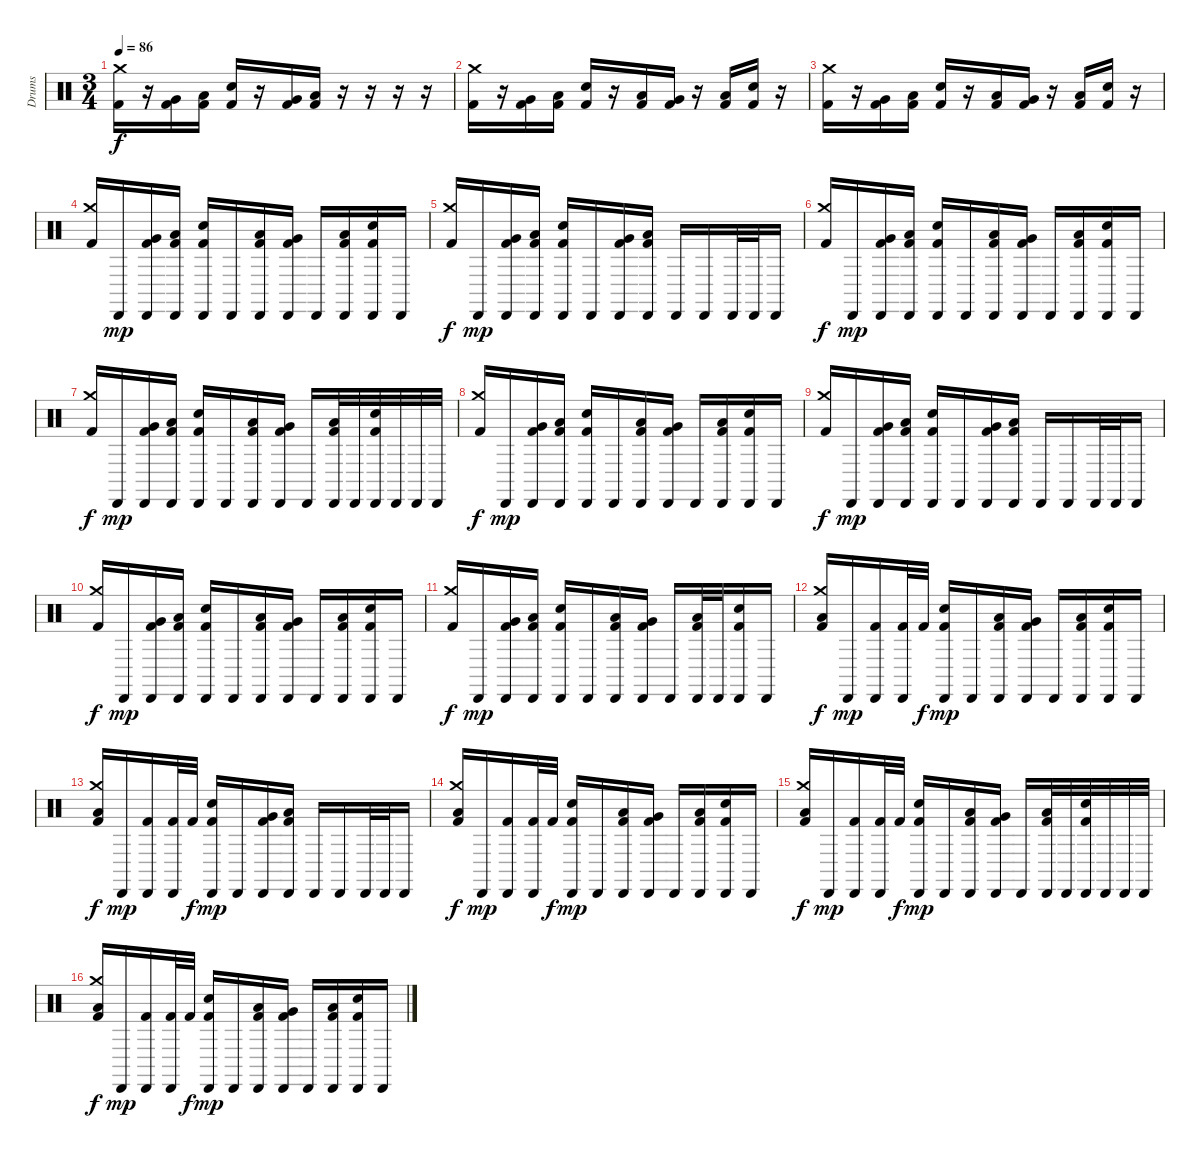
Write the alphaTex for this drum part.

\track ("Drums" "Drums") {instrument percussion}
\staff {score}
\articulation defaults
\ts (3 4)
\tempo 86
\clef neutral
\ks c
("Crash medium (hit)" "Kick (hit) 2").16{dy f} r.16 ("Very Low Tom (hit)" "Kick (hit) 2").16 ("Low Floor Tom (hit)" "Kick (hit) 2").16 ("Electric Snare (hit)" "Kick (hit) 2").16 r.16 ("Very Low Tom (hit)" "Kick (hit) 2").16 ("Low Floor Tom (hit)" "Kick (hit) 2").16 r.16 r.16 r.16 r.16 |
("Crash medium (hit)" "Kick (hit) 2").16 r.16 ("Very Low Tom (hit)" "Kick (hit) 2").16 ("Low Floor Tom (hit)" "Kick (hit) 2").16 ("Electric Snare (hit)" "Kick (hit) 2").16 r.16 ("Low Tom (hit)" "Kick (hit) 2").16 ("Very Low Tom (hit)" "Kick (hit) 2").16 r.16 ("Low Floor Tom (hit)" "Kick (hit) 2").16 ("Electric Snare (hit)" "Kick (hit) 2").16 r.16 |
("Crash medium (hit)" "Kick (hit) 2").16 r.16 ("Very Low Tom (hit)" "Kick (hit) 2").16 ("Low Floor Tom (hit)" "Kick (hit) 2").16 ("Electric Snare (hit)" "Kick (hit) 2").16 r.16 ("Low Tom (hit)" "Kick (hit) 2").16 ("Very Low Tom (hit)" "Kick (hit) 2").16 r.16 ("Low Floor Tom (hit)" "Kick (hit) 2").16 ("Electric Snare (hit)" "Kick (hit) 2").16 r.16 |
("Crash medium (hit)" "Kick (hit) 2").16 "Cabasa (hit)".16{dy mp} ("Cabasa (hit)" "Very Low Tom (hit)" "Kick (hit) 2").16 ("Cabasa (hit)" "Low Floor Tom (hit)" "Kick (hit) 2").16 ("Cabasa (hit)" "Electric Snare (hit)" "Kick (hit) 2").16 "Cabasa (hit)".16 ("Cabasa (hit)" "Low Tom (hit)" "Kick (hit) 2").16 ("Cabasa (hit)" "Very Low Tom (hit)" "Kick (hit) 2").16 "Cabasa (hit)".16 ("Cabasa (hit)" "Low Floor Tom (hit)" "Kick (hit) 2").16 ("Cabasa (hit)" "Electric Snare (hit)" "Kick (hit) 2").16 "Cabasa (hit)".16 |
("Crash medium (hit)" "Kick (hit) 2").16{dy f} "Cabasa (hit)".16{dy mp} ("Cabasa (hit)" "Very Low Tom (hit)" "Kick (hit) 2").16 ("Cabasa (hit)" "Low Floor Tom (hit)" "Kick (hit) 2").16 ("Cabasa (hit)" "Electric Snare (hit)" "Kick (hit) 2").16 "Cabasa (hit)".16 ("Cabasa (hit)" "Very Low Tom (hit)" "Kick (hit) 2").16 ("Cabasa (hit)" "Low Floor Tom (hit)" "Kick (hit) 2").16 "Cabasa (hit)".16 "Cabasa (hit)".16 "Cabasa (hit)".32 "Cabasa (hit)".32 "Cabasa (hit)".16 |
("Crash medium (hit)" "Kick (hit) 2").16{dy f} "Cabasa (hit)".16{dy mp} ("Cabasa (hit)" "Very Low Tom (hit)" "Kick (hit) 2").16 ("Cabasa (hit)" "Low Floor Tom (hit)" "Kick (hit) 2").16 ("Cabasa (hit)" "Electric Snare (hit)" "Kick (hit) 2").16 "Cabasa (hit)".16 ("Cabasa (hit)" "Low Tom (hit)" "Kick (hit) 2").16 ("Cabasa (hit)" "Very Low Tom (hit)" "Kick (hit) 2").16 "Cabasa (hit)".16 ("Cabasa (hit)" "Low Floor Tom (hit)" "Kick (hit) 2").16 ("Cabasa (hit)" "Electric Snare (hit)" "Kick (hit) 2").16 "Cabasa (hit)".16 |
("Crash medium (hit)" "Kick (hit) 2").16{dy f} "Cabasa (hit)".16{dy mp} ("Cabasa (hit)" "Very Low Tom (hit)" "Kick (hit) 2").16 ("Cabasa (hit)" "Low Floor Tom (hit)" "Kick (hit) 2").16 ("Cabasa (hit)" "Electric Snare (hit)" "Kick (hit) 2").16 "Cabasa (hit)".16 ("Cabasa (hit)" "Low Tom (hit)" "Kick (hit) 2").16 ("Cabasa (hit)" "Very Low Tom (hit)" "Kick (hit) 2").16 "Cabasa (hit)".16 ("Cabasa (hit)" "Low Floor Tom (hit)" "Kick (hit) 2").32 "Cabasa (hit)".32 ("Cabasa (hit)" "Electric Snare (hit)" "Kick (hit) 2").32 "Cabasa (hit)".32 "Cabasa (hit)".32 "Cabasa (hit)".32 |
("Crash medium (hit)" "Kick (hit) 2").16{dy f} "Cabasa (hit)".16{dy mp} ("Cabasa (hit)" "Very Low Tom (hit)" "Kick (hit) 2").16 ("Cabasa (hit)" "Low Floor Tom (hit)" "Kick (hit) 2").16 ("Cabasa (hit)" "Electric Snare (hit)" "Kick (hit) 2").16 "Cabasa (hit)".16 ("Cabasa (hit)" "Low Tom (hit)" "Kick (hit) 2").16 ("Cabasa (hit)" "Very Low Tom (hit)" "Kick (hit) 2").16 "Cabasa (hit)".16 ("Cabasa (hit)" "Low Floor Tom (hit)" "Kick (hit) 2").16 ("Cabasa (hit)" "Electric Snare (hit)" "Kick (hit) 2").16 "Cabasa (hit)".16 |
("Crash medium (hit)" "Kick (hit) 2").16{dy f} "Cabasa (hit)".16{dy mp} ("Cabasa (hit)" "Very Low Tom (hit)" "Kick (hit) 2").16 ("Cabasa (hit)" "Low Floor Tom (hit)" "Kick (hit) 2").16 ("Cabasa (hit)" "Electric Snare (hit)" "Kick (hit) 2").16 "Cabasa (hit)".16 ("Cabasa (hit)" "Very Low Tom (hit)" "Kick (hit) 2").16 ("Cabasa (hit)" "Low Floor Tom (hit)" "Kick (hit) 2").16 "Cabasa (hit)".16 "Cabasa (hit)".16 "Cabasa (hit)".32 "Cabasa (hit)".32 "Cabasa (hit)".16 |
("Crash medium (hit)" "Kick (hit) 2").16{dy f} "Cabasa (hit)".16{dy mp} ("Cabasa (hit)" "Very Low Tom (hit)" "Kick (hit) 2").16 ("Cabasa (hit)" "Low Floor Tom (hit)" "Kick (hit) 2").16 ("Cabasa (hit)" "Electric Snare (hit)" "Kick (hit) 2").16 "Cabasa (hit)".16 ("Cabasa (hit)" "Low Tom (hit)" "Kick (hit) 2").16 ("Cabasa (hit)" "Very Low Tom (hit)" "Kick (hit) 2").16 "Cabasa (hit)".16 ("Cabasa (hit)" "Low Floor Tom (hit)" "Kick (hit) 2").16 ("Cabasa (hit)" "Electric Snare (hit)" "Kick (hit) 2").16 "Cabasa (hit)".16 |
("Crash medium (hit)" "Kick (hit) 2").16{dy f} "Cabasa (hit)".16{dy mp} ("Cabasa (hit)" "Very Low Tom (hit)" "Kick (hit) 2").16 ("Cabasa (hit)" "Low Floor Tom (hit)" "Kick (hit) 2").16 ("Cabasa (hit)" "Electric Snare (hit)" "Kick (hit) 2").16 "Cabasa (hit)".16 ("Cabasa (hit)" "Low Tom (hit)" "Kick (hit) 2").16 ("Cabasa (hit)" "Very Low Tom (hit)" "Kick (hit) 2").16 "Cabasa (hit)".16 ("Cabasa (hit)" "Low Floor Tom (hit)" "Kick (hit) 2").32 "Cabasa (hit)".32 ("Cabasa (hit)" "Electric Snare (hit)" "Kick (hit) 2").16 "Cabasa (hit)".16 |
("Crash medium (hit)" "Low Floor Tom (hit)" "Kick (hit) 2").16{dy f} "Cabasa (hit)".16{dy mp} ("Cabasa (hit)" "Kick (hit) 2").16 ("Cabasa (hit)" "Kick (hit) 2").32 "Kick (hit) 2".32{dy f} ("Cabasa (hit)" "Electric Snare (hit)" "Kick (hit) 2").16{dy mp} "Cabasa (hit)".16 ("Cabasa (hit)" "Low Tom (hit)" "Kick (hit) 2").16 ("Cabasa (hit)" "Very Low Tom (hit)" "Kick (hit) 2").16 "Cabasa (hit)".16 ("Cabasa (hit)" "Low Floor Tom (hit)" "Kick (hit) 2").16 ("Cabasa (hit)" "Electric Snare (hit)" "Kick (hit) 2").16 "Cabasa (hit)".16 |
("Crash medium (hit)" "Low Floor Tom (hit)" "Kick (hit) 2").16{dy f} "Cabasa (hit)".16{dy mp} ("Cabasa (hit)" "Kick (hit) 2").16 ("Cabasa (hit)" "Kick (hit) 2").32 "Kick (hit) 2".32{dy f} ("Cabasa (hit)" "Electric Snare (hit)" "Kick (hit) 2").16{dy mp} "Cabasa (hit)".16 ("Cabasa (hit)" "Very Low Tom (hit)" "Kick (hit) 2").16 ("Cabasa (hit)" "Low Floor Tom (hit)" "Kick (hit) 2").16 "Cabasa (hit)".16 "Cabasa (hit)".16 "Cabasa (hit)".32 "Cabasa (hit)".32 "Cabasa (hit)".16 |
("Crash medium (hit)" "Low Floor Tom (hit)" "Kick (hit) 2").16{dy f} "Cabasa (hit)".16{dy mp} ("Cabasa (hit)" "Kick (hit) 2").16 ("Cabasa (hit)" "Kick (hit) 2").32 "Kick (hit) 2".32{dy f} ("Cabasa (hit)" "Electric Snare (hit)" "Kick (hit) 2").16{dy mp} "Cabasa (hit)".16 ("Cabasa (hit)" "Low Tom (hit)" "Kick (hit) 2").16 ("Cabasa (hit)" "Very Low Tom (hit)" "Kick (hit) 2").16 "Cabasa (hit)".16 ("Cabasa (hit)" "Low Floor Tom (hit)" "Kick (hit) 2").16 ("Cabasa (hit)" "Electric Snare (hit)" "Kick (hit) 2").16 "Cabasa (hit)".16 |
("Crash medium (hit)" "Low Floor Tom (hit)" "Kick (hit) 2").16{dy f} "Cabasa (hit)".16{dy mp} ("Cabasa (hit)" "Kick (hit) 2").16 ("Cabasa (hit)" "Kick (hit) 2").32 "Kick (hit) 2".32{dy f} ("Cabasa (hit)" "Electric Snare (hit)" "Kick (hit) 2").16{dy mp} "Cabasa (hit)".16 ("Cabasa (hit)" "Low Tom (hit)" "Kick (hit) 2").16 ("Cabasa (hit)" "Very Low Tom (hit)" "Kick (hit) 2").16 "Cabasa (hit)".16 ("Cabasa (hit)" "Low Floor Tom (hit)" "Kick (hit) 2").32 "Cabasa (hit)".32 ("Cabasa (hit)" "Electric Snare (hit)" "Kick (hit) 2").32 "Cabasa (hit)".32 "Cabasa (hit)".32 "Cabasa (hit)".32 |
("Crash medium (hit)" "Low Floor Tom (hit)" "Kick (hit) 2").16{dy f} "Cabasa (hit)".16{dy mp} ("Cabasa (hit)" "Kick (hit) 2").16 ("Cabasa (hit)" "Kick (hit) 2").32 "Kick (hit) 2".32{dy f} ("Cabasa (hit)" "Electric Snare (hit)" "Kick (hit) 2").16{dy mp} "Cabasa (hit)".16 ("Cabasa (hit)" "Low Tom (hit)" "Kick (hit) 2").16 ("Cabasa (hit)" "Very Low Tom (hit)" "Kick (hit) 2").16 "Cabasa (hit)".16 ("Cabasa (hit)" "Low Floor Tom (hit)" "Kick (hit) 2").16 ("Cabasa (hit)" "Electric Snare (hit)" "Kick (hit) 2").16 "Cabasa (hit)".16
